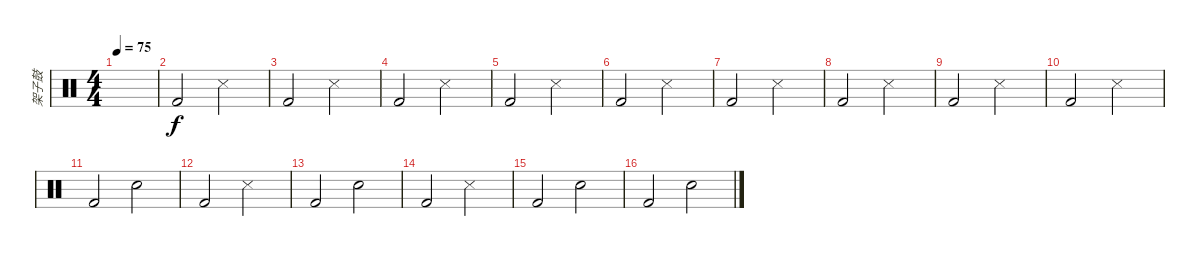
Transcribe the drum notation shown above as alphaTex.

\track ("架子鼓" "架子鼓") {instrument percussion}
\staff {score}
\articulation defaults
\ts (4 4)
\tempo 75
\clef neutral
\ks c
|
"Kick (hit) 2".2 "Snare (side stick) 3".2 |
"Kick (hit) 2".2 "Snare (side stick) 3".2 |
"Kick (hit) 2".2 "Snare (side stick) 3".2 |
"Kick (hit) 2".2 "Snare (side stick) 3".2 |
"Kick (hit) 2".2 "Snare (side stick) 3".2 |
"Kick (hit) 2".2 "Snare (side stick) 3".2 |
"Kick (hit) 2".2 "Snare (side stick) 3".2 |
"Kick (hit) 2".2 "Snare (side stick) 3".2 |
"Kick (hit) 2".2 "Snare (side stick) 3".2 |
"Kick (hit) 2".2 "Electric Snare (hit)".2 |
"Kick (hit) 2".2 "Snare (side stick) 3".2 |
"Kick (hit) 2".2 "Electric Snare (hit)".2 |
"Kick (hit) 2".2 "Snare (side stick) 3".2 |
"Kick (hit) 2".2 "Electric Snare (hit)".2 |
"Kick (hit) 2".2 "Electric Snare (hit)".2
